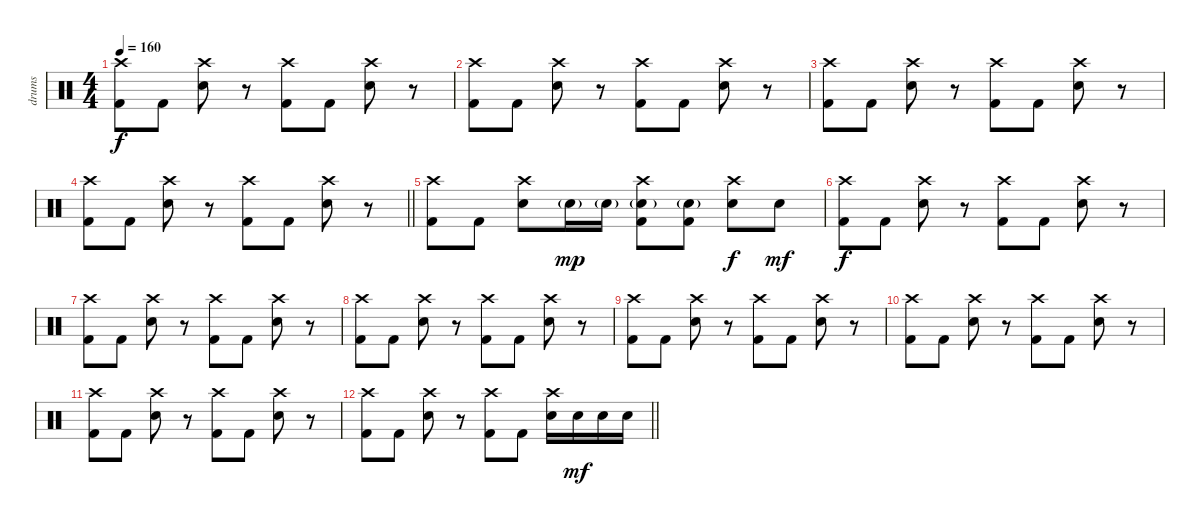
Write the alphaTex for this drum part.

\track ("drums" "drums") {instrument percussion}
\staff {score}
\articulation defaults
\ts (4 4)
\tempo 160
\clef neutral
\ks c
("Crash high (hit)" "Kick (hit) 2").8{dy f} "Kick (hit) 2".8 ("Crash high (hit)" "Electric Snare (hit)").8 r.8 ("Crash high (hit)" "Kick (hit) 2").8 "Kick (hit) 2".8 ("Crash high (hit)" "Electric Snare (hit)").8 r.8 |
("Crash high (hit)" "Kick (hit) 2").8 "Kick (hit) 2".8 ("Crash high (hit)" "Electric Snare (hit)").8 r.8 ("Crash high (hit)" "Kick (hit) 2").8 "Kick (hit) 2".8 ("Crash high (hit)" "Electric Snare (hit)").8 r.8 |
("Crash high (hit)" "Kick (hit) 2").8 "Kick (hit) 2".8 ("Crash high (hit)" "Electric Snare (hit)").8 r.8 ("Crash high (hit)" "Kick (hit) 2").8 "Kick (hit) 2".8 ("Crash high (hit)" "Electric Snare (hit)").8 r.8 |
\barLineRight lightlight
("Crash high (hit)" "Kick (hit) 2").8 "Kick (hit) 2".8 ("Crash high (hit)" "Electric Snare (hit)").8 r.8 ("Crash high (hit)" "Kick (hit) 2").8 "Kick (hit) 2".8 ("Crash high (hit)" "Electric Snare (hit)").8 r.8 |
("Crash high (hit)" "Kick (hit) 2").8 "Kick (hit) 2".8 ("Crash high (hit)" "Electric Snare (hit)").8 "Electric Snare (hit)"{g}.16{dy mp} "Electric Snare (hit)"{g}.16 ("Crash high (hit)" "Electric Snare (hit)"{g} "Kick (hit) 2").8 ("Electric Snare (hit)"{g} "Kick (hit) 2").8 ("Crash high (hit)" "Electric Snare (hit)").8{dy f} "Electric Snare (hit)".8{dy mf} |
("Crash high (hit)" "Kick (hit) 2").8{dy f} "Kick (hit) 2".8 ("Crash high (hit)" "Electric Snare (hit)").8 r.8 ("Crash high (hit)" "Kick (hit) 2").8 "Kick (hit) 2".8 ("Crash high (hit)" "Electric Snare (hit)").8 r.8 |
("Crash high (hit)" "Kick (hit) 2").8 "Kick (hit) 2".8 ("Crash high (hit)" "Electric Snare (hit)").8 r.8 ("Crash high (hit)" "Kick (hit) 2").8 "Kick (hit) 2".8 ("Crash high (hit)" "Electric Snare (hit)").8 r.8 |
("Crash high (hit)" "Kick (hit) 2").8 "Kick (hit) 2".8 ("Crash high (hit)" "Electric Snare (hit)").8 r.8 ("Crash high (hit)" "Kick (hit) 2").8 "Kick (hit) 2".8 ("Crash high (hit)" "Electric Snare (hit)").8 r.8 |
("Crash high (hit)" "Kick (hit) 2").8 "Kick (hit) 2".8 ("Crash high (hit)" "Electric Snare (hit)").8 r.8 ("Crash high (hit)" "Kick (hit) 2").8 "Kick (hit) 2".8 ("Crash high (hit)" "Electric Snare (hit)").8 r.8 |
("Crash high (hit)" "Kick (hit) 2").8 "Kick (hit) 2".8 ("Crash high (hit)" "Electric Snare (hit)").8 r.8 ("Crash high (hit)" "Kick (hit) 2").8 "Kick (hit) 2".8 ("Crash high (hit)" "Electric Snare (hit)").8 r.8 |
("Crash high (hit)" "Kick (hit) 2").8 "Kick (hit) 2".8 ("Crash high (hit)" "Electric Snare (hit)").8 r.8 ("Crash high (hit)" "Kick (hit) 2").8 "Kick (hit) 2".8 ("Crash high (hit)" "Electric Snare (hit)").8 r.8 |
\barLineRight lightlight
("Crash high (hit)" "Kick (hit) 2").8 "Kick (hit) 2".8 ("Crash high (hit)" "Electric Snare (hit)").8 r.8 ("Crash high (hit)" "Kick (hit) 2").8 "Kick (hit) 2".8 ("Crash high (hit)" "Electric Snare (hit)").16 "Electric Snare (hit)".16{dy mf} "Electric Snare (hit)".16 "Electric Snare (hit)".16
